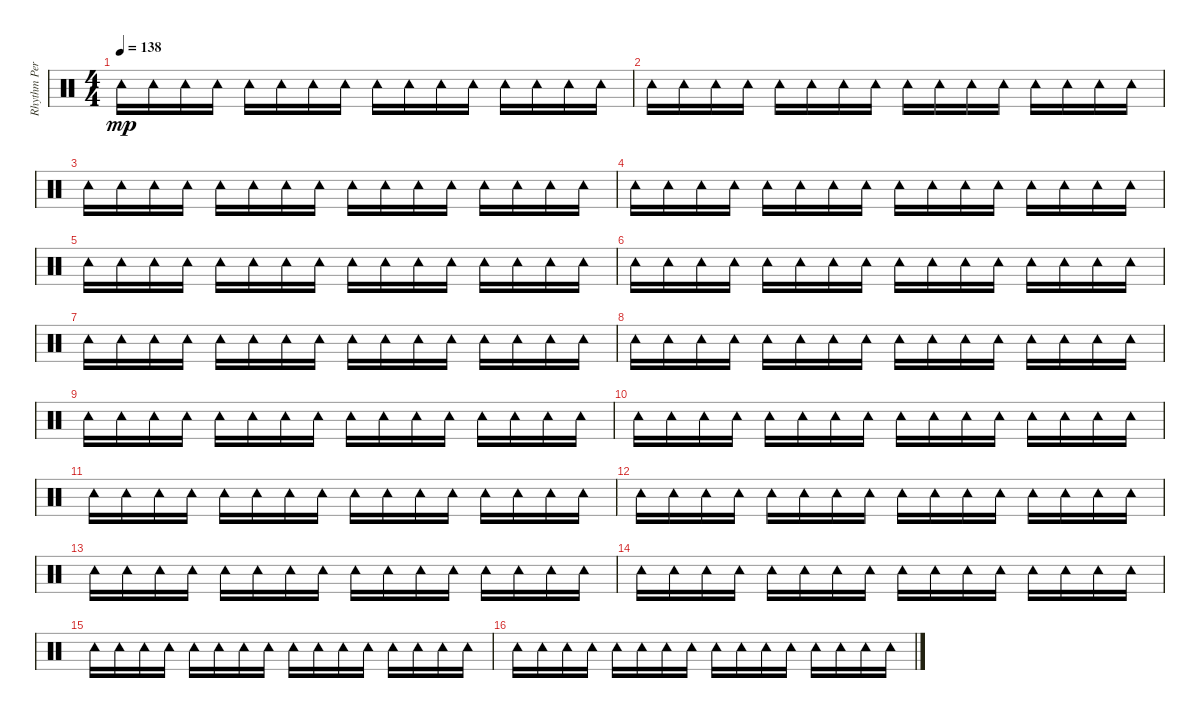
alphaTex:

\track ("Rhythm Percussion" "Rhythm Per") {instrument percussion}
\staff {score}
\articulation defaults
\ts (4 4)
\tempo 138
\clef neutral
\ks c "Tambourine (hit)".16{dy mp} "Tambourine (hit)".16 "Tambourine (hit)".16 "Tambourine (hit)".16 "Tambourine (hit)".16 "Tambourine (hit)".16 "Tambourine (hit)".16 "Tambourine (hit)".16 "Tambourine (hit)".16 "Tambourine (hit)".16 "Tambourine (hit)".16 "Tambourine (hit)".16 "Tambourine (hit)".16 "Tambourine (hit)".16 "Tambourine (hit)".16 "Tambourine (hit)".16
|
"Tambourine (hit)".16 "Tambourine (hit)".16 "Tambourine (hit)".16 "Tambourine (hit)".16 "Tambourine (hit)".16 "Tambourine (hit)".16 "Tambourine (hit)".16 "Tambourine (hit)".16 "Tambourine (hit)".16 "Tambourine (hit)".16 "Tambourine (hit)".16 "Tambourine (hit)".16 "Tambourine (hit)".16 "Tambourine (hit)".16 "Tambourine (hit)".16 "Tambourine (hit)".16 |
"Tambourine (hit)".16 "Tambourine (hit)".16 "Tambourine (hit)".16 "Tambourine (hit)".16 "Tambourine (hit)".16 "Tambourine (hit)".16 "Tambourine (hit)".16 "Tambourine (hit)".16 "Tambourine (hit)".16 "Tambourine (hit)".16 "Tambourine (hit)".16 "Tambourine (hit)".16 "Tambourine (hit)".16 "Tambourine (hit)".16 "Tambourine (hit)".16 "Tambourine (hit)".16 |
"Tambourine (hit)".16 "Tambourine (hit)".16 "Tambourine (hit)".16 "Tambourine (hit)".16 "Tambourine (hit)".16 "Tambourine (hit)".16 "Tambourine (hit)".16 "Tambourine (hit)".16 "Tambourine (hit)".16 "Tambourine (hit)".16 "Tambourine (hit)".16 "Tambourine (hit)".16 "Tambourine (hit)".16 "Tambourine (hit)".16 "Tambourine (hit)".16 "Tambourine (hit)".16 |
"Tambourine (hit)".16 "Tambourine (hit)".16 "Tambourine (hit)".16 "Tambourine (hit)".16 "Tambourine (hit)".16 "Tambourine (hit)".16 "Tambourine (hit)".16 "Tambourine (hit)".16 "Tambourine (hit)".16 "Tambourine (hit)".16 "Tambourine (hit)".16 "Tambourine (hit)".16 "Tambourine (hit)".16 "Tambourine (hit)".16 "Tambourine (hit)".16 "Tambourine (hit)".16 |
"Tambourine (hit)".16 "Tambourine (hit)".16 "Tambourine (hit)".16 "Tambourine (hit)".16 "Tambourine (hit)".16 "Tambourine (hit)".16 "Tambourine (hit)".16 "Tambourine (hit)".16 "Tambourine (hit)".16 "Tambourine (hit)".16 "Tambourine (hit)".16 "Tambourine (hit)".16 "Tambourine (hit)".16 "Tambourine (hit)".16 "Tambourine (hit)".16 "Tambourine (hit)".16 |
"Tambourine (hit)".16 "Tambourine (hit)".16 "Tambourine (hit)".16 "Tambourine (hit)".16 "Tambourine (hit)".16 "Tambourine (hit)".16 "Tambourine (hit)".16 "Tambourine (hit)".16 "Tambourine (hit)".16 "Tambourine (hit)".16 "Tambourine (hit)".16 "Tambourine (hit)".16 "Tambourine (hit)".16 "Tambourine (hit)".16 "Tambourine (hit)".16 "Tambourine (hit)".16 |
"Tambourine (hit)".16 "Tambourine (hit)".16 "Tambourine (hit)".16 "Tambourine (hit)".16 "Tambourine (hit)".16 "Tambourine (hit)".16 "Tambourine (hit)".16 "Tambourine (hit)".16 "Tambourine (hit)".16 "Tambourine (hit)".16 "Tambourine (hit)".16 "Tambourine (hit)".16 "Tambourine (hit)".16 "Tambourine (hit)".16 "Tambourine (hit)".16 "Tambourine (hit)".16 |
"Tambourine (hit)".16 "Tambourine (hit)".16 "Tambourine (hit)".16 "Tambourine (hit)".16 "Tambourine (hit)".16 "Tambourine (hit)".16 "Tambourine (hit)".16 "Tambourine (hit)".16 "Tambourine (hit)".16 "Tambourine (hit)".16 "Tambourine (hit)".16 "Tambourine (hit)".16 "Tambourine (hit)".16 "Tambourine (hit)".16 "Tambourine (hit)".16 "Tambourine (hit)".16 |
"Tambourine (hit)".16 "Tambourine (hit)".16 "Tambourine (hit)".16 "Tambourine (hit)".16 "Tambourine (hit)".16 "Tambourine (hit)".16 "Tambourine (hit)".16 "Tambourine (hit)".16 "Tambourine (hit)".16 "Tambourine (hit)".16 "Tambourine (hit)".16 "Tambourine (hit)".16 "Tambourine (hit)".16 "Tambourine (hit)".16 "Tambourine (hit)".16 "Tambourine (hit)".16 |
"Tambourine (hit)".16 "Tambourine (hit)".16 "Tambourine (hit)".16 "Tambourine (hit)".16 "Tambourine (hit)".16 "Tambourine (hit)".16 "Tambourine (hit)".16 "Tambourine (hit)".16 "Tambourine (hit)".16 "Tambourine (hit)".16 "Tambourine (hit)".16 "Tambourine (hit)".16 "Tambourine (hit)".16 "Tambourine (hit)".16 "Tambourine (hit)".16 "Tambourine (hit)".16 |
"Tambourine (hit)".16 "Tambourine (hit)".16 "Tambourine (hit)".16 "Tambourine (hit)".16 "Tambourine (hit)".16 "Tambourine (hit)".16 "Tambourine (hit)".16 "Tambourine (hit)".16 "Tambourine (hit)".16 "Tambourine (hit)".16 "Tambourine (hit)".16 "Tambourine (hit)".16 "Tambourine (hit)".16 "Tambourine (hit)".16 "Tambourine (hit)".16 "Tambourine (hit)".16 |
"Tambourine (hit)".16 "Tambourine (hit)".16 "Tambourine (hit)".16 "Tambourine (hit)".16 "Tambourine (hit)".16 "Tambourine (hit)".16 "Tambourine (hit)".16 "Tambourine (hit)".16 "Tambourine (hit)".16 "Tambourine (hit)".16 "Tambourine (hit)".16 "Tambourine (hit)".16 "Tambourine (hit)".16 "Tambourine (hit)".16 "Tambourine (hit)".16 "Tambourine (hit)".16 |
"Tambourine (hit)".16 "Tambourine (hit)".16 "Tambourine (hit)".16 "Tambourine (hit)".16 "Tambourine (hit)".16 "Tambourine (hit)".16 "Tambourine (hit)".16 "Tambourine (hit)".16 "Tambourine (hit)".16 "Tambourine (hit)".16 "Tambourine (hit)".16 "Tambourine (hit)".16 "Tambourine (hit)".16 "Tambourine (hit)".16 "Tambourine (hit)".16 "Tambourine (hit)".16 |
"Tambourine (hit)".16 "Tambourine (hit)".16 "Tambourine (hit)".16 "Tambourine (hit)".16 "Tambourine (hit)".16 "Tambourine (hit)".16 "Tambourine (hit)".16 "Tambourine (hit)".16 "Tambourine (hit)".16 "Tambourine (hit)".16 "Tambourine (hit)".16 "Tambourine (hit)".16 "Tambourine (hit)".16 "Tambourine (hit)".16 "Tambourine (hit)".16 "Tambourine (hit)".16 |
"Tambourine (hit)".16 "Tambourine (hit)".16 "Tambourine (hit)".16 "Tambourine (hit)".16 "Tambourine (hit)".16 "Tambourine (hit)".16 "Tambourine (hit)".16 "Tambourine (hit)".16 "Tambourine (hit)".16 "Tambourine (hit)".16 "Tambourine (hit)".16 "Tambourine (hit)".16 "Tambourine (hit)".16 "Tambourine (hit)".16 "Tambourine (hit)".16 "Tambourine (hit)".16
